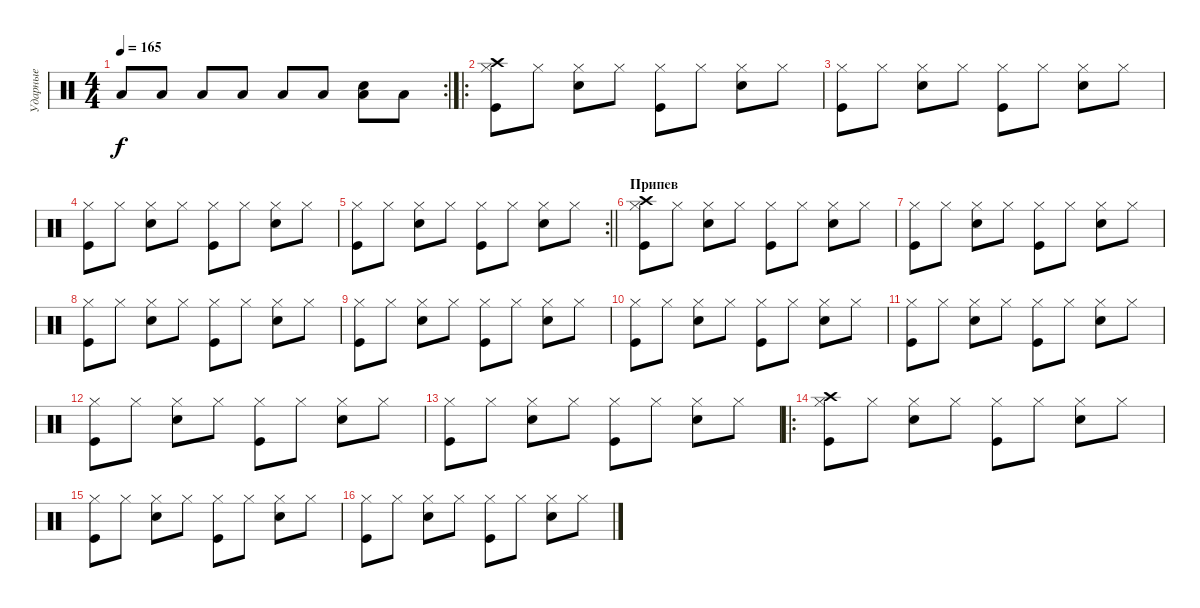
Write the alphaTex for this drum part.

\track ("Ударные" "Ударные") {instrument percussion}
\staff {score}
\articulation defaults
\rc 2
\ts (4 4)
\tempo 165
\clef neutral
\ks c "Low Floor Tom (hit)".8{dy f} "Low Floor Tom (hit)".8 "Low Floor Tom (hit)".8 "Low Floor Tom (hit)".8 "Low Floor Tom (hit)".8 "Low Floor Tom (hit)".8
("Snare (hit) 2" "Low Floor Tom (hit)").8 "Low Floor Tom (hit)".8 |
\ro
("Kick (hit)" "Hi-Hat (closed)" "Crash high (hit)").8 "Hi-Hat (closed)".8 ("Snare (hit) 2" "Hi-Hat (closed)").8 "Hi-Hat (closed)".8 ("Kick (hit)" "Hi-Hat (closed)").8 "Hi-Hat (closed)".8 ("Snare (hit) 2" "Hi-Hat (closed)").8 "Hi-Hat (closed)".8 |
("Kick (hit)" "Hi-Hat (closed)").8 "Hi-Hat (closed)".8 ("Snare (hit) 2" "Hi-Hat (closed)").8 "Hi-Hat (closed)".8 ("Kick (hit)" "Hi-Hat (closed)").8 "Hi-Hat (closed)".8 ("Snare (hit) 2" "Hi-Hat (closed)").8 "Hi-Hat (closed)".8 |
("Kick (hit)" "Hi-Hat (closed)").8 "Hi-Hat (closed)".8 ("Snare (hit) 2" "Hi-Hat (closed)").8 "Hi-Hat (closed)".8 ("Kick (hit)" "Hi-Hat (closed)").8 "Hi-Hat (closed)".8 ("Snare (hit) 2" "Hi-Hat (closed)").8 "Hi-Hat (closed)".8 |
\rc 2
\barLineRight lightlight
("Kick (hit)" "Hi-Hat (closed)").8 "Hi-Hat (closed)".8 ("Snare (hit) 2" "Hi-Hat (closed)").8 "Hi-Hat (closed)".8 ("Kick (hit)" "Hi-Hat (closed)").8 "Hi-Hat (closed)".8 ("Snare (hit) 2" "Hi-Hat (closed)").8 "Hi-Hat (closed)".8 |
\section ("" "Припев")
("Kick (hit)" "Hi-Hat (closed)" "Crash high (hit)").8 "Hi-Hat (closed)".8 ("Snare (hit) 2" "Hi-Hat (closed)").8 "Hi-Hat (closed)".8 ("Kick (hit)" "Hi-Hat (closed)").8 "Hi-Hat (closed)".8 ("Snare (hit) 2" "Hi-Hat (closed)").8 "Hi-Hat (closed)".8 |
("Kick (hit)" "Hi-Hat (closed)").8 "Hi-Hat (closed)".8 ("Snare (hit) 2" "Hi-Hat (closed)").8 "Hi-Hat (closed)".8 ("Kick (hit)" "Hi-Hat (closed)").8 "Hi-Hat (closed)".8 ("Snare (hit) 2" "Hi-Hat (closed)").8 "Hi-Hat (closed)".8 |
("Kick (hit)" "Hi-Hat (closed)").8 "Hi-Hat (closed)".8 ("Snare (hit) 2" "Hi-Hat (closed)").8 "Hi-Hat (closed)".8 ("Kick (hit)" "Hi-Hat (closed)").8 "Hi-Hat (closed)".8 ("Snare (hit) 2" "Hi-Hat (closed)").8 "Hi-Hat (closed)".8 |
("Kick (hit)" "Hi-Hat (closed)").8 "Hi-Hat (closed)".8 ("Snare (hit) 2" "Hi-Hat (closed)").8 "Hi-Hat (closed)".8 ("Kick (hit)" "Hi-Hat (closed)").8 "Hi-Hat (closed)".8 ("Snare (hit) 2" "Hi-Hat (closed)").8 "Hi-Hat (closed)".8 |
("Kick (hit)" "Hi-Hat (closed)").8 "Hi-Hat (closed)".8 ("Snare (hit) 2" "Hi-Hat (closed)").8 "Hi-Hat (closed)".8 ("Kick (hit)" "Hi-Hat (closed)").8 "Hi-Hat (closed)".8 ("Snare (hit) 2" "Hi-Hat (closed)").8 "Hi-Hat (closed)".8 |
("Kick (hit)" "Hi-Hat (closed)").8 "Hi-Hat (closed)".8 ("Snare (hit) 2" "Hi-Hat (closed)").8 "Hi-Hat (closed)".8 ("Kick (hit)" "Hi-Hat (closed)").8 "Hi-Hat (closed)".8 ("Snare (hit) 2" "Hi-Hat (closed)").8 "Hi-Hat (closed)".8 |
("Kick (hit)" "Hi-Hat (closed)").8 "Hi-Hat (closed)".8 ("Snare (hit) 2" "Hi-Hat (closed)").8 "Hi-Hat (closed)".8 ("Kick (hit)" "Hi-Hat (closed)").8 "Hi-Hat (closed)".8 ("Snare (hit) 2" "Hi-Hat (closed)").8 "Hi-Hat (closed)".8 |
("Kick (hit)" "Hi-Hat (closed)").8 "Hi-Hat (closed)".8 ("Snare (hit) 2" "Hi-Hat (closed)").8 "Hi-Hat (closed)".8 ("Kick (hit)" "Hi-Hat (closed)").8 "Hi-Hat (closed)".8 ("Snare (hit) 2" "Hi-Hat (closed)").8 "Hi-Hat (closed)".8 |
\ro
("Kick (hit)" "Hi-Hat (closed)" "Crash high (hit)").8 "Hi-Hat (closed)".8 ("Snare (hit) 2" "Hi-Hat (closed)").8 "Hi-Hat (closed)".8 ("Kick (hit)" "Hi-Hat (closed)").8 "Hi-Hat (closed)".8 ("Snare (hit) 2" "Hi-Hat (closed)").8 "Hi-Hat (closed)".8 |
("Kick (hit)" "Hi-Hat (closed)").8 "Hi-Hat (closed)".8 ("Snare (hit) 2" "Hi-Hat (closed)").8 "Hi-Hat (closed)".8 ("Kick (hit)" "Hi-Hat (closed)").8 "Hi-Hat (closed)".8 ("Snare (hit) 2" "Hi-Hat (closed)").8 "Hi-Hat (closed)".8 |
("Kick (hit)" "Hi-Hat (closed)").8 "Hi-Hat (closed)".8 ("Snare (hit) 2" "Hi-Hat (closed)").8 "Hi-Hat (closed)".8 ("Kick (hit)" "Hi-Hat (closed)").8 "Hi-Hat (closed)".8 ("Snare (hit) 2" "Hi-Hat (closed)").8 "Hi-Hat (closed)".8
